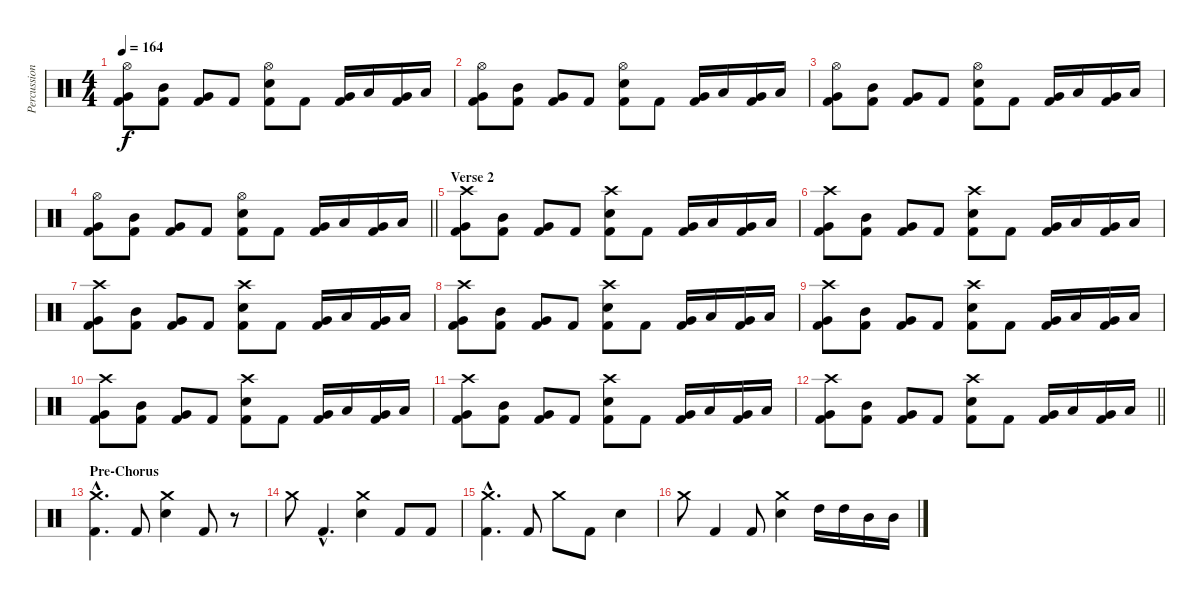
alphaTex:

\track ("Percussions" "Percussion") {instrument percussion}
\staff {score}
\articulation defaults
\ts (4 4)
\tempo 164
\clef neutral
\ks c
("Hi-Hat (open)" "Very Low Tom (hit)" "Kick (hit) 2").8{dy f} ("Mid Tom (hit)" "Kick (hit) 2").8 ("Very Low Tom (hit)" "Kick (hit) 2").8 "Kick (hit) 2".8 ("Hi-Hat (open)" "Snare (hit) 2" "Kick (hit) 2").8 "Kick (hit) 2".8 ("Very Low Tom (hit)" "Kick (hit) 2").16 "Low Tom (hit)".16 ("Very Low Tom (hit)" "Kick (hit) 2").16 "Low Tom (hit)".16 |
("Hi-Hat (open)" "Very Low Tom (hit)" "Kick (hit) 2").8 ("Mid Tom (hit)" "Kick (hit) 2").8 ("Very Low Tom (hit)" "Kick (hit) 2").8 "Kick (hit) 2".8 ("Hi-Hat (open)" "Snare (hit) 2" "Kick (hit) 2").8 "Kick (hit) 2".8 ("Very Low Tom (hit)" "Kick (hit) 2").16 "Low Tom (hit)".16 ("Very Low Tom (hit)" "Kick (hit) 2").16 "Low Tom (hit)".16 |
("Hi-Hat (open)" "Very Low Tom (hit)" "Kick (hit) 2").8 ("Mid Tom (hit)" "Kick (hit) 2").8 ("Very Low Tom (hit)" "Kick (hit) 2").8 "Kick (hit) 2".8 ("Hi-Hat (open)" "Snare (hit) 2" "Kick (hit) 2").8 "Kick (hit) 2".8 ("Very Low Tom (hit)" "Kick (hit) 2").16 "Low Tom (hit)".16 ("Very Low Tom (hit)" "Kick (hit) 2").16 "Low Tom (hit)".16 |
\barLineRight lightlight
("Hi-Hat (open)" "Very Low Tom (hit)" "Kick (hit) 2").8 ("Mid Tom (hit)" "Kick (hit) 2").8 ("Very Low Tom (hit)" "Kick (hit) 2").8 "Kick (hit) 2".8 ("Hi-Hat (open)" "Snare (hit) 2" "Kick (hit) 2").8 "Kick (hit) 2".8 ("Very Low Tom (hit)" "Kick (hit) 2").16 "Low Tom (hit)".16 ("Very Low Tom (hit)" "Kick (hit) 2").16 "Low Tom (hit)".16 |
\section ("" "Verse 2")
("Crash high (hit)" "Very Low Tom (hit)" "Kick (hit) 2").8 ("Mid Tom (hit)" "Kick (hit) 2").8 ("Very Low Tom (hit)" "Kick (hit) 2").8 "Kick (hit) 2".8 ("Crash high (hit)" "Snare (hit) 2" "Kick (hit) 2").8 "Kick (hit) 2".8 ("Very Low Tom (hit)" "Kick (hit) 2").16 "Low Tom (hit)".16 ("Very Low Tom (hit)" "Kick (hit) 2").16 "Low Tom (hit)".16 |
("Crash high (hit)" "Very Low Tom (hit)" "Kick (hit) 2").8 ("Mid Tom (hit)" "Kick (hit) 2").8 ("Very Low Tom (hit)" "Kick (hit) 2").8 "Kick (hit) 2".8 ("Crash high (hit)" "Snare (hit) 2" "Kick (hit) 2").8 "Kick (hit) 2".8 ("Very Low Tom (hit)" "Kick (hit) 2").16 "Low Tom (hit)".16 ("Very Low Tom (hit)" "Kick (hit) 2").16 "Low Tom (hit)".16 |
("Crash high (hit)" "Very Low Tom (hit)" "Kick (hit) 2").8 ("Mid Tom (hit)" "Kick (hit) 2").8 ("Very Low Tom (hit)" "Kick (hit) 2").8 "Kick (hit) 2".8 ("Crash high (hit)" "Snare (hit) 2" "Kick (hit) 2").8 "Kick (hit) 2".8 ("Very Low Tom (hit)" "Kick (hit) 2").16 "Low Tom (hit)".16 ("Very Low Tom (hit)" "Kick (hit) 2").16 "Low Tom (hit)".16 |
("Crash high (hit)" "Very Low Tom (hit)" "Kick (hit) 2").8 ("Mid Tom (hit)" "Kick (hit) 2").8 ("Very Low Tom (hit)" "Kick (hit) 2").8 "Kick (hit) 2".8 ("Crash high (hit)" "Snare (hit) 2" "Kick (hit) 2").8 "Kick (hit) 2".8 ("Very Low Tom (hit)" "Kick (hit) 2").16 "Low Tom (hit)".16 ("Very Low Tom (hit)" "Kick (hit) 2").16 "Low Tom (hit)".16 |
("Crash high (hit)" "Very Low Tom (hit)" "Kick (hit) 2").8 ("Mid Tom (hit)" "Kick (hit) 2").8 ("Very Low Tom (hit)" "Kick (hit) 2").8 "Kick (hit) 2".8 ("Crash high (hit)" "Snare (hit) 2" "Kick (hit) 2").8 "Kick (hit) 2".8 ("Very Low Tom (hit)" "Kick (hit) 2").16 "Low Tom (hit)".16 ("Very Low Tom (hit)" "Kick (hit) 2").16 "Low Tom (hit)".16 |
("Crash high (hit)" "Very Low Tom (hit)" "Kick (hit) 2").8 ("Mid Tom (hit)" "Kick (hit) 2").8 ("Very Low Tom (hit)" "Kick (hit) 2").8 "Kick (hit) 2".8 ("Crash high (hit)" "Snare (hit) 2" "Kick (hit) 2").8 "Kick (hit) 2".8 ("Very Low Tom (hit)" "Kick (hit) 2").16 "Low Tom (hit)".16 ("Very Low Tom (hit)" "Kick (hit) 2").16 "Low Tom (hit)".16 |
("Crash high (hit)" "Very Low Tom (hit)" "Kick (hit) 2").8 ("Mid Tom (hit)" "Kick (hit) 2").8 ("Very Low Tom (hit)" "Kick (hit) 2").8 "Kick (hit) 2".8 ("Crash high (hit)" "Snare (hit) 2" "Kick (hit) 2").8 "Kick (hit) 2".8 ("Very Low Tom (hit)" "Kick (hit) 2").16 "Low Tom (hit)".16 ("Very Low Tom (hit)" "Kick (hit) 2").16 "Low Tom (hit)".16 |
\barLineRight lightlight
("Crash high (hit)" "Very Low Tom (hit)" "Kick (hit) 2").8 ("Mid Tom (hit)" "Kick (hit) 2").8 ("Very Low Tom (hit)" "Kick (hit) 2").8 "Kick (hit) 2".8 ("Crash high (hit)" "Snare (hit) 2" "Kick (hit) 2").8 "Kick (hit) 2".8 ("Very Low Tom (hit)" "Kick (hit) 2").16 "Low Tom (hit)".16 ("Very Low Tom (hit)" "Kick (hit) 2").16 "Low Tom (hit)".16 |
\section ("" "Pre-Chorus")
("Crash medium (hit)"{hac} "Kick (hit) 2"{hac}).4{d} "Kick (hit) 2".8 ("Crash medium (hit)" "Snare (hit) 2").4 "Kick (hit) 2".8 r.8 |
"Crash medium (hit)".8 "Kick (hit) 2"{hac}.4{d} ("Crash medium (hit)" "Snare (hit) 2").4 "Kick (hit) 2".8 "Kick (hit) 2".8 |
("Crash medium (hit)"{hac} "Kick (hit) 2"{hac}).4{d} "Kick (hit) 2".8 "Crash medium (hit)".8 "Kick (hit) 2".8 "Snare (hit) 2".4 |
"Crash medium (hit)".8 "Kick (hit) 2".4 "Kick (hit) 2".8 ("Crash medium (hit)" "Snare (hit) 2").4 "High Tom (hit)".16 "High Tom (hit)".16 "Mid Tom (hit)".16 "Mid Tom (hit)".16
